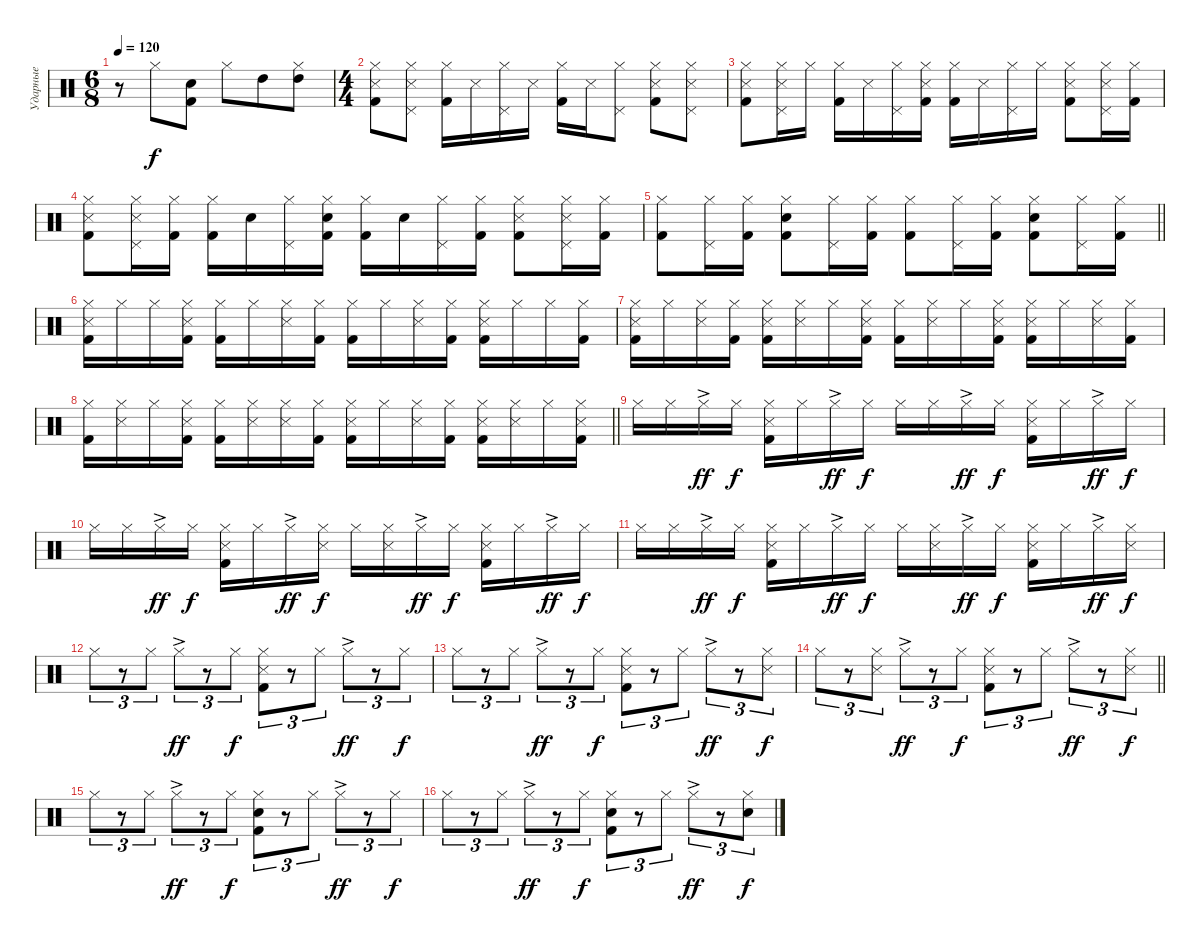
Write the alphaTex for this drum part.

\track ("Ударные" "Ударные") {instrument percussion}
\staff {score}
\articulation defaults
\ts (6 8)
\tempo 120
\clef neutral
\ks c
r.8{dy f} "Hi-Hat (closed)".8 ("Electric Snare (hit)" "Kick (hit) 2").8 "Hi-Hat (closed)".8 "High Tom (hit)".8 ("High Tom (hit)" "Hi-Hat (closed)").8 |
\ts (4 4)
("Hi-Hat (closed)" "Kick (hit) 2" "Snare (side stick) 3").8 ("Hi-Hat (closed)" "Snare (side stick) 3" "Pedal Hi-Hat (hit)").8 ("Hi-Hat (closed)" "Kick (hit) 2").16 "Snare (side stick) 3".16 ("Hi-Hat (closed)" "Pedal Hi-Hat (hit)").16 "Snare (side stick) 3".16 ("Hi-Hat (closed)" "Kick (hit) 2").16 "Snare (side stick) 3".16 ("Hi-Hat (closed)" "Pedal Hi-Hat (hit)").8 ("Hi-Hat (closed)" "Kick (hit) 2" "Snare (side stick) 3").8 ("Hi-Hat (closed)" "Snare (side stick) 3" "Pedal Hi-Hat (hit)").8 |
("Hi-Hat (closed)" "Kick (hit) 2" "Snare (side stick) 3").8 ("Hi-Hat (closed)" "Snare (side stick) 3" "Pedal Hi-Hat (hit)").16 "Hi-Hat (closed)".16 ("Hi-Hat (closed)" "Kick (hit) 2").16 "Snare (side stick) 3".16 ("Hi-Hat (closed)" "Pedal Hi-Hat (hit)").16 ("Hi-Hat (closed)" "Kick (hit) 2" "Snare (side stick) 3").16 ("Hi-Hat (closed)" "Kick (hit) 2").16 "Snare (side stick) 3".16 ("Hi-Hat (closed)" "Pedal Hi-Hat (hit)").16 "Hi-Hat (closed)".16 ("Hi-Hat (closed)" "Kick (hit) 2" "Snare (side stick) 3").8 ("Hi-Hat (closed)" "Snare (side stick) 3" "Pedal Hi-Hat (hit)").16 ("Hi-Hat (closed)" "Kick (hit) 2").16 |
("Hi-Hat (closed)" "Kick (hit) 2" "Snare (side stick) 3").8 ("Hi-Hat (closed)" "Snare (side stick) 3" "Pedal Hi-Hat (hit)").16 ("Hi-Hat (closed)" "Kick (hit) 2").16 ("Hi-Hat (closed)" "Kick (hit) 2").16 "Electric Snare (hit)".16 ("Hi-Hat (closed)" "Pedal Hi-Hat (hit)").16 ("Hi-Hat (closed)" "Kick (hit) 2" "Electric Snare (hit)").16 ("Hi-Hat (closed)" "Kick (hit) 2").16 "Electric Snare (hit)".16 ("Hi-Hat (closed)" "Pedal Hi-Hat (hit)").16 ("Hi-Hat (closed)" "Kick (hit) 2").16 ("Hi-Hat (closed)" "Kick (hit) 2" "Snare (side stick) 3").8 ("Hi-Hat (closed)" "Snare (side stick) 3" "Pedal Hi-Hat (hit)").16 ("Hi-Hat (closed)" "Kick (hit) 2").16 |
\barLineRight lightlight
("Hi-Hat (closed)" "Kick (hit) 2").8 ("Hi-Hat (closed)" "Pedal Hi-Hat (hit)").16 ("Hi-Hat (closed)" "Kick (hit) 2").16 ("Hi-Hat (closed)" "Kick (hit) 2" "Electric Snare (hit)").8 ("Hi-Hat (closed)" "Pedal Hi-Hat (hit)").16 ("Hi-Hat (closed)" "Kick (hit) 2").16 ("Hi-Hat (closed)" "Kick (hit) 2").8 ("Hi-Hat (closed)" "Pedal Hi-Hat (hit)").16 ("Hi-Hat (closed)" "Kick (hit) 2").16 ("Hi-Hat (closed)" "Kick (hit) 2" "Electric Snare (hit)").8 ("Hi-Hat (closed)" "Pedal Hi-Hat (hit)").16 ("Hi-Hat (closed)" "Kick (hit) 2").16 |
("Hi-Hat (closed)" "Kick (hit) 2" "Snare (side stick) 3").16 "Hi-Hat (closed)".16 "Hi-Hat (closed)".16 ("Hi-Hat (closed)" "Kick (hit) 2" "Snare (side stick) 3").16 ("Hi-Hat (closed)" "Kick (hit) 2").16 "Hi-Hat (closed)".16 ("Hi-Hat (closed)" "Snare (side stick) 3").16 ("Hi-Hat (closed)" "Kick (hit) 2").16 ("Hi-Hat (closed)" "Kick (hit) 2").16 "Hi-Hat (closed)".16 ("Hi-Hat (closed)" "Snare (side stick) 3").16 ("Hi-Hat (closed)" "Kick (hit) 2").16 ("Hi-Hat (closed)" "Kick (hit) 2" "Snare (side stick) 3").16 "Hi-Hat (closed)".16 "Hi-Hat (closed)".16 ("Hi-Hat (closed)" "Kick (hit) 2").16 |
("Hi-Hat (closed)" "Kick (hit) 2" "Snare (side stick) 3").16 "Hi-Hat (closed)".16 ("Hi-Hat (closed)" "Snare (side stick) 3").16 ("Hi-Hat (closed)" "Kick (hit) 2").16 ("Hi-Hat (closed)" "Kick (hit) 2" "Snare (side stick) 3").16 ("Hi-Hat (closed)" "Snare (side stick) 3").16 "Hi-Hat (closed)".16 ("Hi-Hat (closed)" "Kick (hit) 2" "Snare (side stick) 3").16 ("Hi-Hat (closed)" "Kick (hit) 2").16 ("Hi-Hat (closed)" "Snare (side stick) 3").16 "Hi-Hat (closed)".16 ("Hi-Hat (closed)" "Kick (hit) 2" "Snare (side stick) 3").16 ("Hi-Hat (closed)" "Kick (hit) 2" "Snare (side stick) 3").16 "Hi-Hat (closed)".16 ("Hi-Hat (closed)" "Snare (side stick) 3").16 ("Hi-Hat (closed)" "Kick (hit) 2").16 |
\barLineRight lightlight
("Hi-Hat (closed)" "Kick (hit) 2").16 ("Hi-Hat (closed)" "Snare (side stick) 3").16 "Hi-Hat (closed)".16 ("Hi-Hat (closed)" "Kick (hit) 2" "Snare (side stick) 3").16 ("Hi-Hat (closed)" "Kick (hit) 2").16 ("Hi-Hat (closed)" "Snare (side stick) 3").16 ("Hi-Hat (closed)" "Snare (side stick) 3").16 ("Hi-Hat (closed)" "Kick (hit) 2").16 ("Hi-Hat (closed)" "Kick (hit) 2" "Snare (side stick) 3").16 "Hi-Hat (closed)".16 ("Hi-Hat (closed)" "Snare (side stick) 3").16 ("Hi-Hat (closed)" "Kick (hit) 2").16 ("Hi-Hat (closed)" "Kick (hit) 2" "Snare (side stick) 3").16 ("Hi-Hat (closed)" "Snare (side stick) 3").16 "Hi-Hat (closed)".16 ("Hi-Hat (closed)" "Kick (hit) 2" "Snare (side stick) 3").16 |
"Hi-Hat (closed)".16 "Hi-Hat (closed)".16 "Hi-Hat (closed)"{ac}.16{dy ff} "Hi-Hat (closed)".16{dy f} ("Hi-Hat (closed)" "Snare (side stick) 3" "Kick (hit) 2").16 "Hi-Hat (closed)".16 "Hi-Hat (closed)"{ac}.16{dy ff} "Hi-Hat (closed)".16{dy f} "Hi-Hat (closed)".16 "Hi-Hat (closed)".16 "Hi-Hat (closed)"{ac}.16{dy ff} "Hi-Hat (closed)".16{dy f} ("Hi-Hat (closed)" "Snare (side stick) 3" "Kick (hit) 2").16 "Hi-Hat (closed)".16 "Hi-Hat (closed)"{ac}.16{dy ff} "Hi-Hat (closed)".16{dy f} |
"Hi-Hat (closed)".16 "Hi-Hat (closed)".16 "Hi-Hat (closed)"{ac}.16{dy ff} "Hi-Hat (closed)".16{dy f} ("Hi-Hat (closed)" "Snare (side stick) 3" "Kick (hit) 2").16 "Hi-Hat (closed)".16 "Hi-Hat (closed)"{ac}.16{dy ff} ("Hi-Hat (closed)" "Snare (side stick) 3").16{dy f} "Hi-Hat (closed)".16 ("Hi-Hat (closed)" "Snare (side stick) 3").16 "Hi-Hat (closed)"{ac}.16{dy ff} "Hi-Hat (closed)".16{dy f} ("Hi-Hat (closed)" "Snare (side stick) 3" "Kick (hit) 2").16 "Hi-Hat (closed)".16 "Hi-Hat (closed)"{ac}.16{dy ff} "Hi-Hat (closed)".16{dy f} |
"Hi-Hat (closed)".16 "Hi-Hat (closed)".16 "Hi-Hat (closed)"{ac}.16{dy ff} "Hi-Hat (closed)".16{dy f} ("Hi-Hat (closed)" "Snare (side stick) 3" "Kick (hit) 2").16 "Hi-Hat (closed)".16 "Hi-Hat (closed)"{ac}.16{dy ff} "Hi-Hat (closed)".16{dy f} "Hi-Hat (closed)".16 ("Hi-Hat (closed)" "Snare (side stick) 3").16 "Hi-Hat (closed)"{ac}.16{dy ff} "Hi-Hat (closed)".16{dy f} ("Hi-Hat (closed)" "Snare (side stick) 3" "Kick (hit) 2").16 "Hi-Hat (closed)".16 "Hi-Hat (closed)"{ac}.16{dy ff} ("Hi-Hat (closed)" "Snare (side stick) 3").16{dy f} |
"Hi-Hat (closed)".8{tu (3 2)} r.8{tu (3 2)} "Hi-Hat (closed)".8{tu (3 2)} "Hi-Hat (closed)"{ac}.8{tu (3 2) dy ff} r.8{tu (3 2)} "Hi-Hat (closed)".8{tu (3 2) dy f} ("Hi-Hat (closed)" "Kick (hit) 2" "Snare (side stick) 3").8{tu (3 2)} r.8{tu (3 2)} "Hi-Hat (closed)".8{tu (3 2)} "Hi-Hat (closed)"{ac}.8{tu (3 2) dy ff} r.8{tu (3 2)} "Hi-Hat (closed)".8{tu (3 2) dy f} |
"Hi-Hat (closed)".8{tu (3 2)} r.8{tu (3 2)} "Hi-Hat (closed)".8{tu (3 2)} "Hi-Hat (closed)"{ac}.8{tu (3 2) dy ff} r.8{tu (3 2)} "Hi-Hat (closed)".8{tu (3 2) dy f} ("Hi-Hat (closed)" "Kick (hit) 2" "Snare (side stick) 3").8{tu (3 2)} r.8{tu (3 2)} "Hi-Hat (closed)".8{tu (3 2)} "Hi-Hat (closed)"{ac}.8{tu (3 2) dy ff} r.8{tu (3 2)} ("Hi-Hat (closed)" "Snare (side stick) 3").8{tu (3 2) dy f} |
\barLineRight lightlight "Hi-Hat (closed)".8{tu (3 2)}
r.8{tu (3 2)} ("Hi-Hat (closed)" "Snare (side stick) 3").8{tu (3 2)} "Hi-Hat (closed)"{ac}.8{tu (3 2) dy ff} r.8{tu (3 2)} "Hi-Hat (closed)".8{tu (3 2) dy f} ("Hi-Hat (closed)" "Kick (hit) 2" "Snare (side stick) 3").8{tu (3 2)} r.8{tu (3 2)} "Hi-Hat (closed)".8{tu (3 2)} "Hi-Hat (closed)"{ac}.8{tu (3 2) dy ff} r.8{tu (3 2)} ("Hi-Hat (closed)" "Snare (side stick) 3").8{tu (3 2) dy f} |
"Hi-Hat (closed)".8{tu (3 2)} r.8{tu (3 2)} "Hi-Hat (closed)".8{tu (3 2)} "Hi-Hat (closed)"{ac}.8{tu (3 2) dy ff} r.8{tu (3 2)} "Hi-Hat (closed)".8{tu (3 2) dy f} ("Hi-Hat (closed)" "Kick (hit) 2" "Electric Snare (hit)").8{tu (3 2)} r.8{tu (3 2)} "Hi-Hat (closed)".8{tu (3 2)} "Hi-Hat (closed)"{ac}.8{tu (3 2) dy ff} r.8{tu (3 2)} "Hi-Hat (closed)".8{tu (3 2) dy f} |
"Hi-Hat (closed)".8{tu (3 2)} r.8{tu (3 2)} "Hi-Hat (closed)".8{tu (3 2)} "Hi-Hat (closed)"{ac}.8{tu (3 2) dy ff} r.8{tu (3 2)} "Hi-Hat (closed)".8{tu (3 2) dy f} ("Hi-Hat (closed)" "Kick (hit) 2" "Electric Snare (hit)").8{tu (3 2)} r.8{tu (3 2)} "Hi-Hat (closed)".8{tu (3 2)} "Hi-Hat (closed)"{ac}.8{tu (3 2) dy ff} r.8{tu (3 2)} ("Hi-Hat (closed)" "Electric Snare (hit)").8{tu (3 2) dy f}
